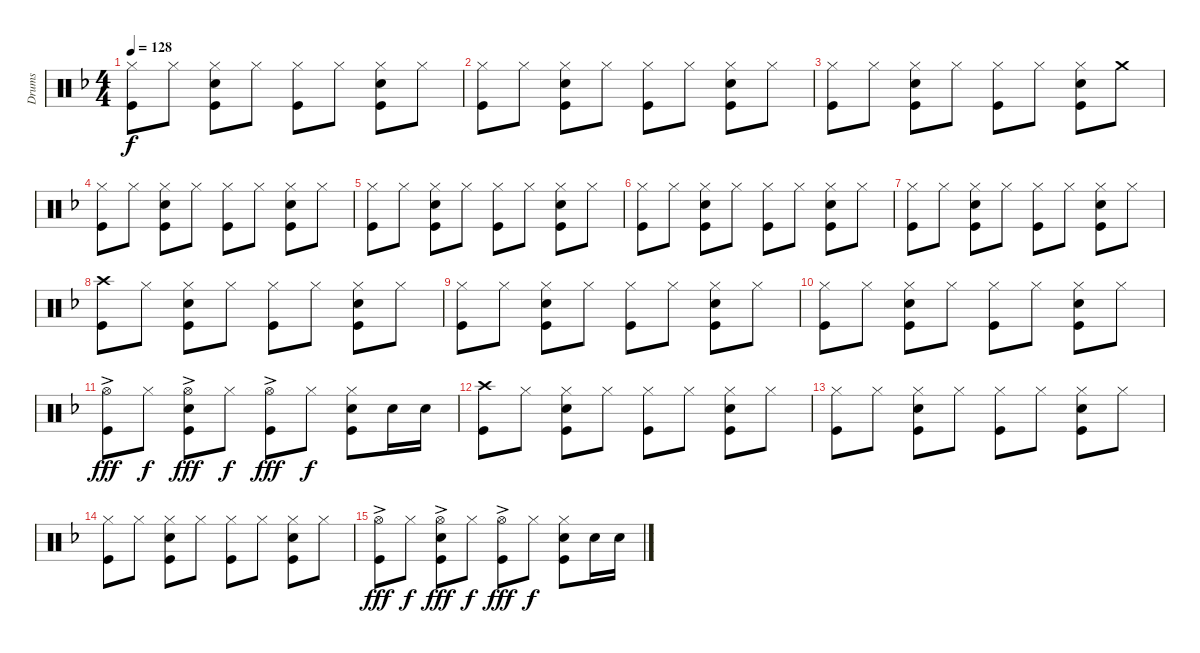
\track ("Drums" "Drums") {instrument percussion}
\staff {score}
\articulation defaults
\ts (4 4)
\tempo 128
\clef neutral
\ks f
("Hi-Hat (closed)" "Kick (hit)").8{dy f} "Hi-Hat (closed)".8 ("Hi-Hat (closed)" "Snare (hit) 2" "Kick (hit)").8 "Hi-Hat (closed)".8 ("Hi-Hat (closed)" "Kick (hit)").8 "Hi-Hat (closed)".8 ("Hi-Hat (closed)" "Snare (hit) 2" "Kick (hit)").8 "Hi-Hat (closed)".8 |
("Hi-Hat (closed)" "Kick (hit)").8 "Hi-Hat (closed)".8 ("Hi-Hat (closed)" "Snare (hit) 2" "Kick (hit)").8 "Hi-Hat (closed)".8 ("Hi-Hat (closed)" "Kick (hit)").8 "Hi-Hat (closed)".8 ("Hi-Hat (closed)" "Snare (hit) 2" "Kick (hit)").8 "Hi-Hat (closed)".8 |
("Hi-Hat (closed)" "Kick (hit)").8 "Hi-Hat (closed)".8 ("Hi-Hat (closed)" "Snare (hit) 2" "Kick (hit)").8 "Hi-Hat (closed)".8 ("Hi-Hat (closed)" "Kick (hit)").8 "Hi-Hat (closed)".8 ("Hi-Hat (closed)" "Snare (hit) 2" "Kick (hit)").8 "Crash medium (hit)".8 |
("Hi-Hat (closed)" "Kick (hit)").8 "Hi-Hat (closed)".8 ("Hi-Hat (closed)" "Snare (hit) 2" "Kick (hit)").8 "Hi-Hat (closed)".8 ("Hi-Hat (closed)" "Kick (hit)").8 "Hi-Hat (closed)".8 ("Hi-Hat (closed)" "Snare (hit) 2" "Kick (hit)").8 "Hi-Hat (closed)".8 |
("Hi-Hat (closed)" "Kick (hit)").8 "Hi-Hat (closed)".8 ("Hi-Hat (closed)" "Snare (hit) 2" "Kick (hit)").8 "Hi-Hat (closed)".8 ("Hi-Hat (closed)" "Kick (hit)").8 "Hi-Hat (closed)".8 ("Hi-Hat (closed)" "Snare (hit) 2" "Kick (hit)").8 "Hi-Hat (closed)".8 |
("Hi-Hat (closed)" "Kick (hit)").8 "Hi-Hat (closed)".8 ("Hi-Hat (closed)" "Snare (hit) 2" "Kick (hit)").8 "Hi-Hat (closed)".8 ("Hi-Hat (closed)" "Kick (hit)").8 "Hi-Hat (closed)".8 ("Hi-Hat (closed)" "Snare (hit) 2" "Kick (hit)").8 "Hi-Hat (closed)".8 |
("Hi-Hat (closed)" "Kick (hit)").8 "Hi-Hat (closed)".8 ("Hi-Hat (closed)" "Snare (hit) 2" "Kick (hit)").8 "Hi-Hat (closed)".8 ("Hi-Hat (closed)" "Kick (hit)").8 "Hi-Hat (closed)".8 ("Hi-Hat (closed)" "Snare (hit) 2" "Kick (hit)").8 "Hi-Hat (closed)".8 |
("Crash high (hit)" "Kick (hit)").8 "Hi-Hat (closed)".8 ("Hi-Hat (closed)" "Snare (hit) 2" "Kick (hit)").8 "Hi-Hat (closed)".8 ("Hi-Hat (closed)" "Kick (hit)").8 "Hi-Hat (closed)".8 ("Hi-Hat (closed)" "Snare (hit) 2" "Kick (hit)").8 "Hi-Hat (closed)".8 |
("Hi-Hat (closed)" "Kick (hit)").8 "Hi-Hat (closed)".8 ("Hi-Hat (closed)" "Snare (hit) 2" "Kick (hit)").8 "Hi-Hat (closed)".8 ("Hi-Hat (closed)" "Kick (hit)").8 "Hi-Hat (closed)".8 ("Hi-Hat (closed)" "Snare (hit) 2" "Kick (hit)").8 "Hi-Hat (closed)".8 |
("Hi-Hat (closed)" "Kick (hit)").8 "Hi-Hat (closed)".8 ("Hi-Hat (closed)" "Snare (hit) 2" "Kick (hit)").8 "Hi-Hat (closed)".8 ("Hi-Hat (closed)" "Kick (hit)").8 "Hi-Hat (closed)".8 ("Hi-Hat (closed)" "Snare (hit) 2" "Kick (hit)").8 "Hi-Hat (closed)".8 |
("Hi-Hat (open)"{ac} "Kick (hit)").8{dy fff} "Hi-Hat (closed)".8{dy f} ("Hi-Hat (open)"{ac} "Snare (hit) 2" "Kick (hit)").8{dy fff} "Hi-Hat (closed)".8{dy f} ("Hi-Hat (open)"{ac} "Kick (hit)").8{dy fff} "Hi-Hat (closed)".8{dy f} ("Hi-Hat (closed)" "Snare (hit) 2" "Kick (hit)").8 "Snare (hit) 2".16 "Snare (hit) 2".16 |
("Crash high (hit)" "Kick (hit)").8 "Hi-Hat (closed)".8 ("Hi-Hat (closed)" "Snare (hit) 2" "Kick (hit)").8 "Hi-Hat (closed)".8 ("Hi-Hat (closed)" "Kick (hit)").8 "Hi-Hat (closed)".8 ("Hi-Hat (closed)" "Snare (hit) 2" "Kick (hit)").8 "Hi-Hat (closed)".8 |
("Hi-Hat (closed)" "Kick (hit)").8 "Hi-Hat (closed)".8 ("Hi-Hat (closed)" "Snare (hit) 2" "Kick (hit)").8 "Hi-Hat (closed)".8 ("Hi-Hat (closed)" "Kick (hit)").8 "Hi-Hat (closed)".8 ("Hi-Hat (closed)" "Snare (hit) 2" "Kick (hit)").8 "Hi-Hat (closed)".8 |
("Hi-Hat (closed)" "Kick (hit)").8 "Hi-Hat (closed)".8 ("Hi-Hat (closed)" "Snare (hit) 2" "Kick (hit)").8 "Hi-Hat (closed)".8 ("Hi-Hat (closed)" "Kick (hit)").8 "Hi-Hat (closed)".8 ("Hi-Hat (closed)" "Snare (hit) 2" "Kick (hit)").8 "Hi-Hat (closed)".8 |
("Hi-Hat (open)"{ac} "Kick (hit)").8{dy fff} "Hi-Hat (closed)".8{dy f} ("Hi-Hat (open)"{ac} "Snare (hit) 2" "Kick (hit)").8{dy fff} "Hi-Hat (closed)".8{dy f} ("Hi-Hat (open)"{ac} "Kick (hit)").8{dy fff} "Hi-Hat (closed)".8{dy f} ("Hi-Hat (closed)" "Snare (hit) 2" "Kick (hit)").8 "Snare (hit) 2".16 "Snare (hit) 2".16
